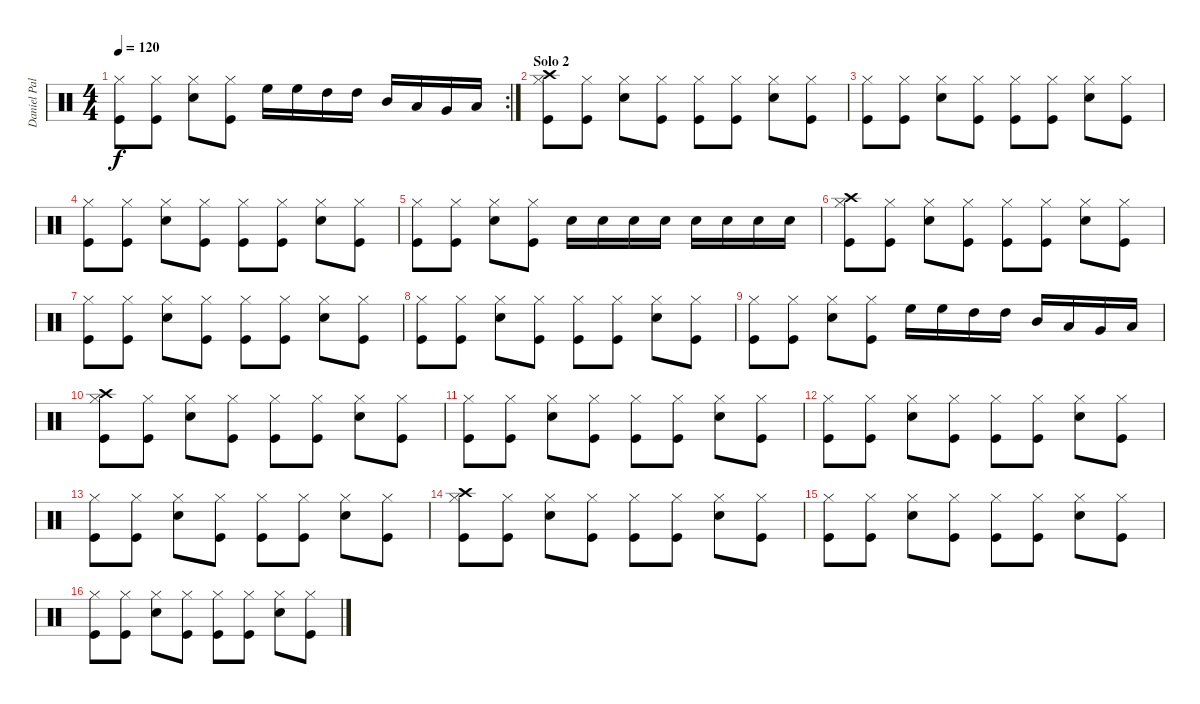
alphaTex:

\track ("Daniel Pal" "Daniel Pal") {instrument percussion}
\staff {score}
\articulation defaults
\rc 2
\ts (4 4)
\tempo 120
\clef neutral
\ks c
("Hi-Hat (closed)" "Kick (hit)").8{dy f} ("Hi-Hat (closed)" "Kick (hit)").8 ("Hi-Hat (closed)" "Electric Snare (hit)").8 ("Hi-Hat (closed)" "Kick (hit)").8 "High Floor Tom (hit)".16 "High Floor Tom (hit)".16 "High Tom (hit)".16 "High Tom (hit)".16 "Mid Tom (hit)".16 "Low Tom (hit)".16 "Very Low Tom (hit)".16 "Low Floor Tom (hit)".16 |
\section ("" "Solo 2")
("Crash high (hit)" "Hi-Hat (closed)" "Kick (hit)").8 ("Hi-Hat (closed)" "Kick (hit)").8 ("Hi-Hat (closed)" "Electric Snare (hit)").8 ("Hi-Hat (closed)" "Kick (hit)").8 ("Hi-Hat (closed)" "Kick (hit)").8 ("Hi-Hat (closed)" "Kick (hit)").8 ("Hi-Hat (closed)" "Electric Snare (hit)").8 ("Hi-Hat (closed)" "Kick (hit)").8 |
("Hi-Hat (closed)" "Kick (hit)").8 ("Hi-Hat (closed)" "Kick (hit)").8 ("Hi-Hat (closed)" "Electric Snare (hit)").8 ("Hi-Hat (closed)" "Kick (hit)").8 ("Hi-Hat (closed)" "Kick (hit)").8 ("Hi-Hat (closed)" "Kick (hit)").8 ("Hi-Hat (closed)" "Electric Snare (hit)").8 ("Hi-Hat (closed)" "Kick (hit)").8 |
("Hi-Hat (closed)" "Kick (hit)").8 ("Hi-Hat (closed)" "Kick (hit)").8 ("Hi-Hat (closed)" "Electric Snare (hit)").8 ("Hi-Hat (closed)" "Kick (hit)").8 ("Hi-Hat (closed)" "Kick (hit)").8 ("Hi-Hat (closed)" "Kick (hit)").8 ("Hi-Hat (closed)" "Electric Snare (hit)").8 ("Hi-Hat (closed)" "Kick (hit)").8 |
("Hi-Hat (closed)" "Kick (hit)").8 ("Hi-Hat (closed)" "Kick (hit)").8 ("Hi-Hat (closed)" "Electric Snare (hit)").8 ("Hi-Hat (closed)" "Kick (hit)").8 "Electric Snare (hit)".16 "Electric Snare (hit)".16 "Electric Snare (hit)".16 "Electric Snare (hit)".16 "Electric Snare (hit)".16 "Electric Snare (hit)".16 "Electric Snare (hit)".16 "Electric Snare (hit)".16 |
("Crash high (hit)" "Hi-Hat (closed)" "Kick (hit)").8 ("Hi-Hat (closed)" "Kick (hit)").8 ("Hi-Hat (closed)" "Electric Snare (hit)").8 ("Hi-Hat (closed)" "Kick (hit)").8 ("Hi-Hat (closed)" "Kick (hit)").8 ("Hi-Hat (closed)" "Kick (hit)").8 ("Hi-Hat (closed)" "Electric Snare (hit)").8 ("Hi-Hat (closed)" "Kick (hit)").8 |
("Hi-Hat (closed)" "Kick (hit)").8 ("Hi-Hat (closed)" "Kick (hit)").8 ("Hi-Hat (closed)" "Electric Snare (hit)").8 ("Hi-Hat (closed)" "Kick (hit)").8 ("Hi-Hat (closed)" "Kick (hit)").8 ("Hi-Hat (closed)" "Kick (hit)").8 ("Hi-Hat (closed)" "Electric Snare (hit)").8 ("Hi-Hat (closed)" "Kick (hit)").8 |
("Hi-Hat (closed)" "Kick (hit)").8 ("Hi-Hat (closed)" "Kick (hit)").8 ("Hi-Hat (closed)" "Electric Snare (hit)").8 ("Hi-Hat (closed)" "Kick (hit)").8 ("Hi-Hat (closed)" "Kick (hit)").8 ("Hi-Hat (closed)" "Kick (hit)").8 ("Hi-Hat (closed)" "Electric Snare (hit)").8 ("Hi-Hat (closed)" "Kick (hit)").8 |
("Hi-Hat (closed)" "Kick (hit)").8 ("Hi-Hat (closed)" "Kick (hit)").8 ("Hi-Hat (closed)" "Electric Snare (hit)").8 ("Hi-Hat (closed)" "Kick (hit)").8 "High Floor Tom (hit)".16 "High Floor Tom (hit)".16 "High Tom (hit)".16 "High Tom (hit)".16 "Mid Tom (hit)".16 "Low Tom (hit)".16 "Very Low Tom (hit)".16 "Low Floor Tom (hit)".16 |
("Crash high (hit)" "Hi-Hat (closed)" "Kick (hit)").8 ("Hi-Hat (closed)" "Kick (hit)").8 ("Hi-Hat (closed)" "Electric Snare (hit)").8 ("Hi-Hat (closed)" "Kick (hit)").8 ("Hi-Hat (closed)" "Kick (hit)").8 ("Hi-Hat (closed)" "Kick (hit)").8 ("Hi-Hat (closed)" "Electric Snare (hit)").8 ("Hi-Hat (closed)" "Kick (hit)").8 |
("Hi-Hat (closed)" "Kick (hit)").8 ("Hi-Hat (closed)" "Kick (hit)").8 ("Hi-Hat (closed)" "Electric Snare (hit)").8 ("Hi-Hat (closed)" "Kick (hit)").8 ("Hi-Hat (closed)" "Kick (hit)").8 ("Hi-Hat (closed)" "Kick (hit)").8 ("Hi-Hat (closed)" "Electric Snare (hit)").8 ("Hi-Hat (closed)" "Kick (hit)").8 |
("Hi-Hat (closed)" "Kick (hit)").8 ("Hi-Hat (closed)" "Kick (hit)").8 ("Hi-Hat (closed)" "Electric Snare (hit)").8 ("Hi-Hat (closed)" "Kick (hit)").8 ("Hi-Hat (closed)" "Kick (hit)").8 ("Hi-Hat (closed)" "Kick (hit)").8 ("Hi-Hat (closed)" "Electric Snare (hit)").8 ("Hi-Hat (closed)" "Kick (hit)").8 |
("Hi-Hat (closed)" "Kick (hit)").8 ("Hi-Hat (closed)" "Kick (hit)").8 ("Hi-Hat (closed)" "Electric Snare (hit)").8 ("Hi-Hat (closed)" "Kick (hit)").8 ("Hi-Hat (closed)" "Kick (hit)").8 ("Hi-Hat (closed)" "Kick (hit)").8 ("Hi-Hat (closed)" "Electric Snare (hit)").8 ("Hi-Hat (closed)" "Kick (hit)").8 |
("Crash high (hit)" "Hi-Hat (closed)" "Kick (hit)").8 ("Hi-Hat (closed)" "Kick (hit)").8 ("Hi-Hat (closed)" "Electric Snare (hit)").8 ("Hi-Hat (closed)" "Kick (hit)").8 ("Hi-Hat (closed)" "Kick (hit)").8 ("Hi-Hat (closed)" "Kick (hit)").8 ("Hi-Hat (closed)" "Electric Snare (hit)").8 ("Hi-Hat (closed)" "Kick (hit)").8 |
("Hi-Hat (closed)" "Kick (hit)").8 ("Hi-Hat (closed)" "Kick (hit)").8 ("Hi-Hat (closed)" "Electric Snare (hit)").8 ("Hi-Hat (closed)" "Kick (hit)").8 ("Hi-Hat (closed)" "Kick (hit)").8 ("Hi-Hat (closed)" "Kick (hit)").8 ("Hi-Hat (closed)" "Electric Snare (hit)").8 ("Hi-Hat (closed)" "Kick (hit)").8 |
("Hi-Hat (closed)" "Kick (hit)").8 ("Hi-Hat (closed)" "Kick (hit)").8 ("Hi-Hat (closed)" "Electric Snare (hit)").8 ("Hi-Hat (closed)" "Kick (hit)").8 ("Hi-Hat (closed)" "Kick (hit)").8 ("Hi-Hat (closed)" "Kick (hit)").8 ("Hi-Hat (closed)" "Electric Snare (hit)").8 ("Hi-Hat (closed)" "Kick (hit)").8
